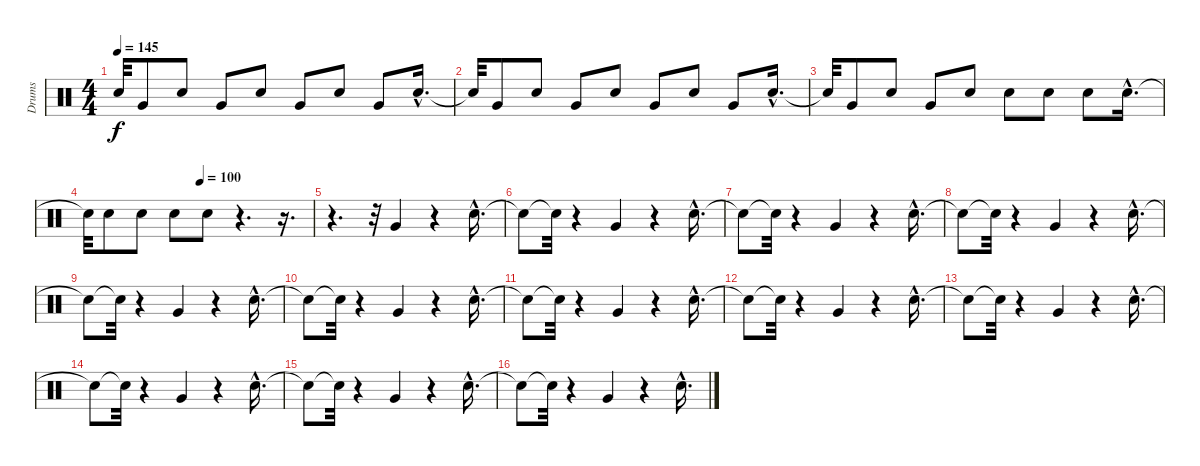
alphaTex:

\track ("Drums" "Drums") {instrument percussion}
\staff {score}
\articulation defaults
\ts (4 4)
\tempo 145
\clef neutral
\ks c "Snare (hit)"{t}.32{dy f} "Very Low Tom (hit)".8 "Snare (hit) 2".8 "Very Low Tom (hit)".8 "Snare (hit) 2".8 "Very Low Tom (hit)".8 "Snare (hit) 2".8 "Very Low Tom (hit)".8 "Snare (hit) 2"{hac}.16{d}
|
"Snare (hit)"{t}.32 "Very Low Tom (hit)".8 "Snare (hit) 2".8 "Very Low Tom (hit)".8 "Snare (hit) 2".8 "Very Low Tom (hit)".8 "Snare (hit) 2".8 "Very Low Tom (hit)".8 "Snare (hit) 2"{hac}.16{d} |
"Snare (hit)"{t}.32 "Very Low Tom (hit)".8 "Snare (hit) 2".8 "Very Low Tom (hit)".8 "Snare (hit) 2".8 "Snare (hit) 2".8 "Snare (hit) 2".8 "Snare (hit) 2".8 "Snare (hit) 2"{hac}.16{d} |
\tempo (100 0.5)
"Snare (hit)"{t}.32 "Snare (hit) 2".8 "Snare (hit) 2".8 "Snare (hit) 2".8 "Snare (hit) 2".8 r.4{d} r.16{d} |
r.4{d} r.32 "Very Low Tom (hit)".4 r.4 "Snare (hit) 2"{hac}.16{d} |
"Snare (hit)"{t}.8 "Snare (hit)"{t}.32 r.4 "Very Low Tom (hit)".4 r.4 "Snare (hit) 2"{hac}.16{d} |
"Snare (hit)"{t}.8 "Snare (hit)"{t}.32 r.4 "Very Low Tom (hit)".4 r.4 "Snare (hit) 2"{hac}.16{d} |
"Snare (hit)"{t}.8 "Snare (hit)"{t}.32 r.4 "Very Low Tom (hit)".4 r.4 "Snare (hit) 2"{hac}.16{d} |
"Snare (hit)"{t}.8 "Snare (hit)"{t}.32 r.4 "Very Low Tom (hit)".4 r.4 "Snare (hit) 2"{hac}.16{d} |
"Snare (hit)"{t}.8 "Snare (hit)"{t}.32 r.4 "Very Low Tom (hit)".4 r.4 "Snare (hit) 2"{hac}.16{d} |
"Snare (hit)"{t}.8 "Snare (hit)"{t}.32 r.4 "Very Low Tom (hit)".4 r.4 "Snare (hit) 2"{hac}.16{d} |
"Snare (hit)"{t}.8 "Snare (hit)"{t}.32 r.4 "Very Low Tom (hit)".4 r.4 "Snare (hit) 2"{hac}.16{d} |
"Snare (hit)"{t}.8 "Snare (hit)"{t}.32 r.4 "Very Low Tom (hit)".4 r.4 "Snare (hit) 2"{hac}.16{d} |
"Snare (hit)"{t}.8 "Snare (hit)"{t}.32 r.4 "Very Low Tom (hit)".4 r.4 "Snare (hit) 2"{hac}.16{d} |
"Snare (hit)"{t}.8 "Snare (hit)"{t}.32 r.4 "Very Low Tom (hit)".4 r.4 "Snare (hit) 2"{hac}.16{d} |
"Snare (hit)"{t}.8 "Snare (hit)"{t}.32 r.4 "Very Low Tom (hit)".4 r.4 "Snare (hit) 2"{hac}.16{d}
